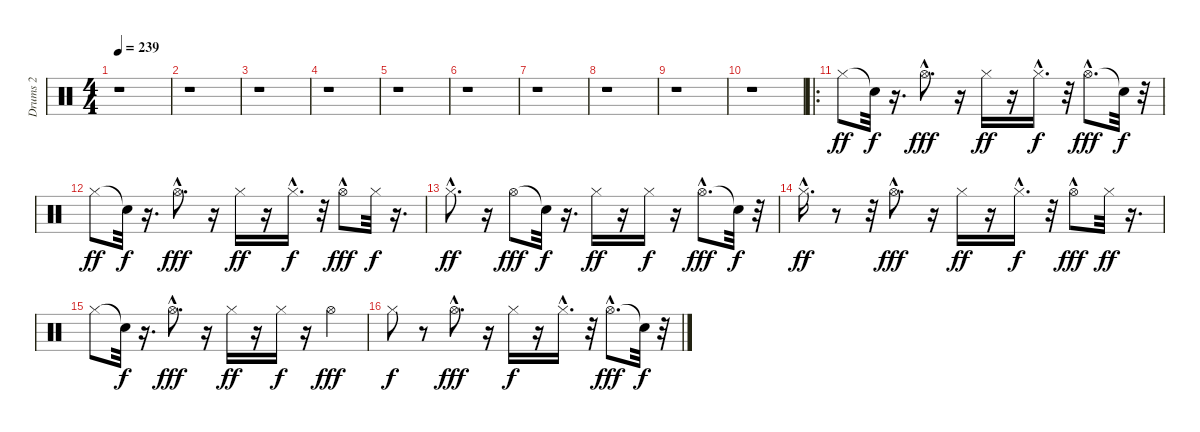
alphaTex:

\track ("Drums 2" "Drums 2") {instrument percussion}
\staff {score}
\articulation defaults
\ts (4 4)
\tempo 239
\clef neutral
\ks c
r.1{dy ff} |
r.1 |
r.1 |
r.1 |
r.1 |
r.1 |
r.1 |
r.1 |
r.1 |
r.1 |
\ro "Hi-Hat (closed)".8 "Snare (hit)"{t}.32{dy f}
r.16{d} "Hi-Hat (open)"{hac}.8{d dy fff} r.16 "Hi-Hat (closed)".16{dy ff} r.16 "Hi-Hat (closed)"{hac}.16{d dy f} r.32 "Hi-Hat (open)"{hac}.8{d dy fff} "Snare (hit)"{t}.32{dy f} r.32 |
"Hi-Hat (closed)".8{dy ff} "Snare (hit)"{t}.32{dy f} r.16{d} "Hi-Hat (open)"{hac}.8{d dy fff} r.16 "Hi-Hat (closed)".16{dy ff} r.16 "Hi-Hat (closed)"{hac}.16{d dy f} r.32 "Hi-Hat (open)"{hac}.8{dy fff} "Hi-Hat (closed)".32{dy f} r.16{d} |
"Hi-Hat (closed)"{hac}.8{d dy ff} r.16 "Hi-Hat (open)".8{dy fff} "Snare (hit)"{t}.32{dy f} r.16{d} "Hi-Hat (closed)".16{dy ff} r.16 "Hi-Hat (closed)".16{dy f} r.16 "Hi-Hat (open)"{hac}.8{d dy fff} "Snare (hit)"{t}.32{dy f} r.32 |
"Hi-Hat (closed)"{hac}.16{d dy ff} r.8 r.32 "Hi-Hat (open)"{hac}.8{d dy fff} r.16 "Hi-Hat (closed)".16{dy ff} r.16 "Hi-Hat (closed)"{hac}.16{d dy f} r.32 "Hi-Hat (open)"{hac}.8{dy fff} "Hi-Hat (closed)".32{dy ff} r.16{d} |
"Hi-Hat (closed)".8 "Snare (hit)"{t}.32{dy f} r.16{d} "Hi-Hat (open)"{hac}.8{d dy fff} r.16 "Hi-Hat (closed)".16{dy ff} r.16 "Hi-Hat (closed)".16{dy f} r.16 "Hi-Hat (open)".4{dy fff} |
"Hi-Hat (closed)".8{dy f} r.8 "Hi-Hat (open)"{hac}.8{d dy fff} r.16 "Hi-Hat (closed)".16{dy f} r.16 "Hi-Hat (closed)"{hac}.16{d} r.32 "Hi-Hat (open)"{hac}.8{d dy fff} "Snare (hit)"{t}.32{dy f} r.32
